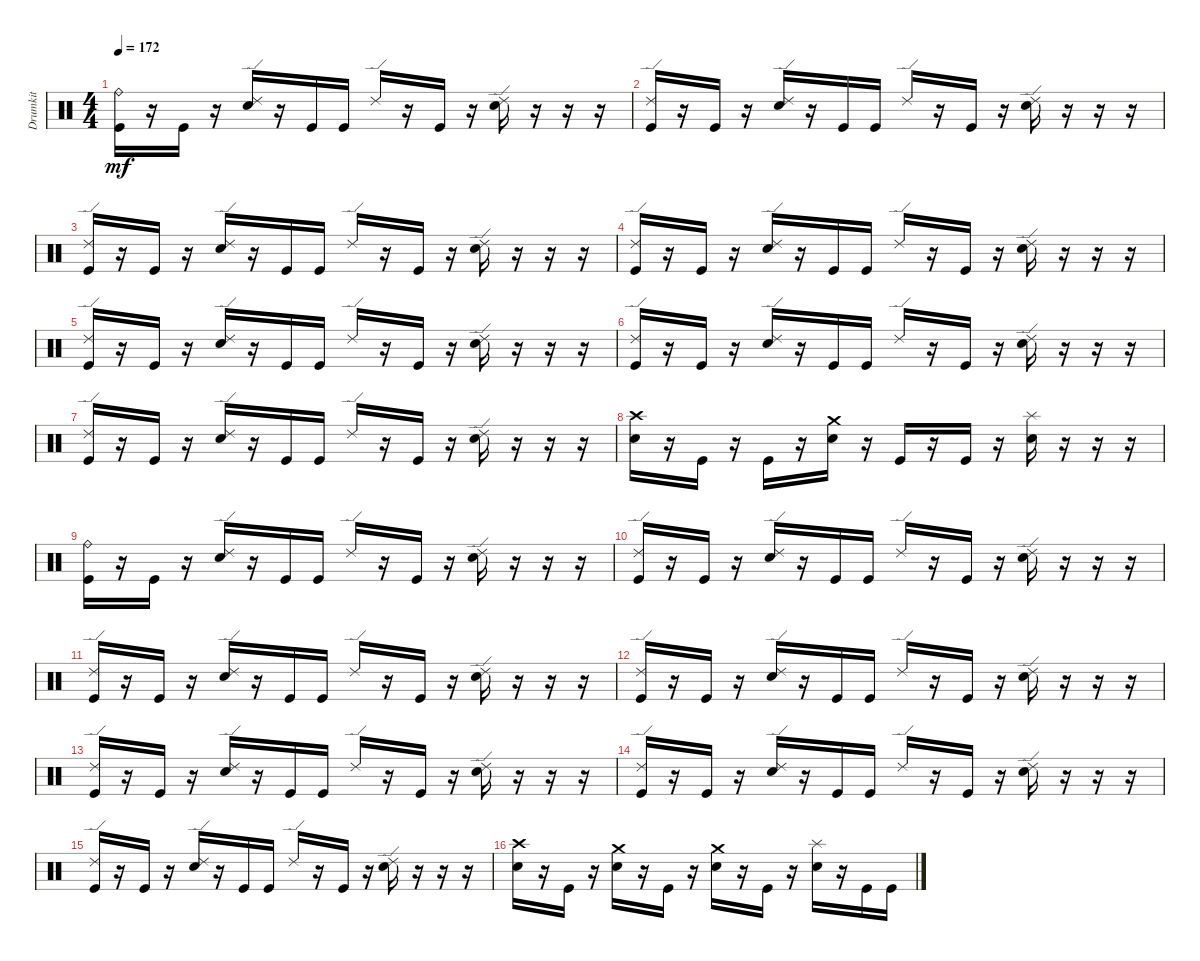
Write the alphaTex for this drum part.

\track ("Drumkit" "Drumkit") {instrument percussion}
\staff {score}
\articulation defaults
\ts (4 4)
\tempo 172
\clef neutral
\ks c
("Kick (hit)" "Ride (bell)").16{dy mf} r.16 "Kick (hit)".16 r.16 ("Snare (hit) 2" "Ride (edge) 2").16 r.16 "Kick (hit)".16 "Kick (hit)".16 "Ride (edge) 2".16 r.16 "Kick (hit)".16 r.16 ("Snare (hit) 2" "Ride (edge) 2").16 r.16 r.16 r.16 |
("Kick (hit)" "Ride (edge) 2").16 r.16 "Kick (hit)".16 r.16 ("Snare (hit) 2" "Ride (edge) 2").16 r.16 "Kick (hit)".16 "Kick (hit)".16 "Ride (edge) 2".16 r.16 "Kick (hit)".16 r.16 ("Snare (hit) 2" "Ride (edge) 2").16 r.16 r.16 r.16 |
("Kick (hit)" "Ride (edge) 2").16 r.16 "Kick (hit)".16 r.16 ("Snare (hit) 2" "Ride (edge) 2").16 r.16 "Kick (hit)".16 "Kick (hit)".16 "Ride (edge) 2".16 r.16 "Kick (hit)".16 r.16 ("Snare (hit) 2" "Ride (edge) 2").16 r.16 r.16 r.16 |
("Kick (hit)" "Ride (edge) 2").16 r.16 "Kick (hit)".16 r.16 ("Snare (hit) 2" "Ride (edge) 2").16 r.16 "Kick (hit)".16 "Kick (hit)".16 "Ride (edge) 2".16 r.16 "Kick (hit)".16 r.16 ("Snare (hit) 2" "Ride (edge) 2").16 r.16 r.16 r.16 |
("Kick (hit)" "Ride (edge) 2").16 r.16 "Kick (hit)".16 r.16 ("Snare (hit) 2" "Ride (edge) 2").16 r.16 "Kick (hit)".16 "Kick (hit)".16 "Ride (edge) 2".16 r.16 "Kick (hit)".16 r.16 ("Snare (hit) 2" "Ride (edge) 2").16 r.16 r.16 r.16 |
("Kick (hit)" "Ride (edge) 2").16 r.16 "Kick (hit)".16 r.16 ("Snare (hit) 2" "Ride (edge) 2").16 r.16 "Kick (hit)".16 "Kick (hit)".16 "Ride (edge) 2".16 r.16 "Kick (hit)".16 r.16 ("Snare (hit) 2" "Ride (edge) 2").16 r.16 r.16 r.16 |
("Kick (hit)" "Ride (edge) 2").16 r.16 "Kick (hit)".16 r.16 ("Snare (hit) 2" "Ride (edge) 2").16 r.16 "Kick (hit)".16 "Kick (hit)".16 "Ride (edge) 2".16 r.16 "Kick (hit)".16 r.16 ("Snare (hit) 2" "Ride (edge) 2").16 r.16 r.16 r.16 |
("Crash high (hit)" "Snare (hit) 2").16 r.16 "Kick (hit)".16 r.16 "Kick (hit)".16 r.16 ("Crash medium (hit)" "Snare (hit) 2").16 r.16 "Kick (hit)".16 r.16 "Kick (hit)".16 r.16 ("Snare (hit) 2" "Splash (hit)").16 r.16 r.16 r.16 |
("Kick (hit)" "Ride (bell)").16 r.16 "Kick (hit)".16 r.16 ("Snare (hit) 2" "Ride (edge) 2").16 r.16 "Kick (hit)".16 "Kick (hit)".16 "Ride (edge) 2".16 r.16 "Kick (hit)".16 r.16 ("Snare (hit) 2" "Ride (edge) 2").16 r.16 r.16 r.16 |
("Kick (hit)" "Ride (edge) 2").16 r.16 "Kick (hit)".16 r.16 ("Snare (hit) 2" "Ride (edge) 2").16 r.16 "Kick (hit)".16 "Kick (hit)".16 "Ride (edge) 2".16 r.16 "Kick (hit)".16 r.16 ("Snare (hit) 2" "Ride (edge) 2").16 r.16 r.16 r.16 |
("Kick (hit)" "Ride (edge) 2").16 r.16 "Kick (hit)".16 r.16 ("Snare (hit) 2" "Ride (edge) 2").16 r.16 "Kick (hit)".16 "Kick (hit)".16 "Ride (edge) 2".16 r.16 "Kick (hit)".16 r.16 ("Snare (hit) 2" "Ride (edge) 2").16 r.16 r.16 r.16 |
("Kick (hit)" "Ride (edge) 2").16 r.16 "Kick (hit)".16 r.16 ("Snare (hit) 2" "Ride (edge) 2").16 r.16 "Kick (hit)".16 "Kick (hit)".16 "Ride (edge) 2".16 r.16 "Kick (hit)".16 r.16 ("Snare (hit) 2" "Ride (edge) 2").16 r.16 r.16 r.16 |
("Kick (hit)" "Ride (edge) 2").16 r.16 "Kick (hit)".16 r.16 ("Snare (hit) 2" "Ride (edge) 2").16 r.16 "Kick (hit)".16 "Kick (hit)".16 "Ride (edge) 2".16 r.16 "Kick (hit)".16 r.16 ("Snare (hit) 2" "Ride (edge) 2").16 r.16 r.16 r.16 |
("Kick (hit)" "Ride (edge) 2").16 r.16 "Kick (hit)".16 r.16 ("Snare (hit) 2" "Ride (edge) 2").16 r.16 "Kick (hit)".16 "Kick (hit)".16 "Ride (edge) 2".16 r.16 "Kick (hit)".16 r.16 ("Snare (hit) 2" "Ride (edge) 2").16 r.16 r.16 r.16 |
("Kick (hit)" "Ride (edge) 2").16 r.16 "Kick (hit)".16 r.16 ("Snare (hit) 2" "Ride (edge) 2").16 r.16 "Kick (hit)".16 "Kick (hit)".16 "Ride (edge) 2".16 r.16 "Kick (hit)".16 r.16 ("Snare (hit) 2" "Ride (edge) 2").16 r.16 r.16 r.16 |
("Crash high (hit)" "Snare (hit) 2").16 r.16 "Kick (hit)".16 r.16 ("Snare (hit) 2" "Crash medium (hit)").16 r.16 "Kick (hit)".16 r.16 ("Snare (hit) 2" "Crash medium (hit)").16 r.16 "Kick (hit)".16 r.16 ("Snare (hit) 2" "Splash (hit)").16 r.16 "Kick (hit)".16 "Kick (hit)".16
